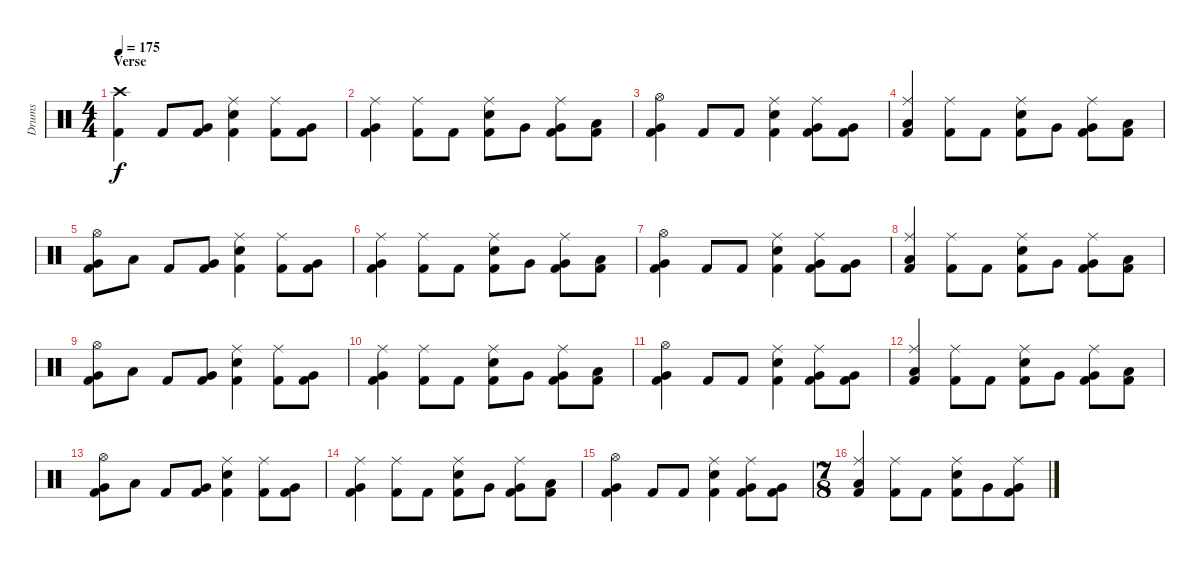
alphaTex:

\track ("Drums" "Drums") {instrument percussion}
\staff {score}
\articulation defaults
\ts (4 4)
\section ("" "Verse")
\tempo 175
\clef neutral
\ks c
("Kick (hit) 2" "Crash high (hit)").4{dy f} "Kick (hit) 2".8 ("Kick (hit) 2" "Very Low Tom (hit)").8 ("Kick (hit) 2" "Electric Snare (hit)" "Ride (middle)").4 ("Kick (hit) 2" "Ride (middle)").8 ("Kick (hit) 2" "Very Low Tom (hit)").8 |
("Kick (hit) 2" "Very Low Tom (hit)" "Ride (middle)").4 ("Kick (hit) 2" "Ride (middle)").8 "Kick (hit) 2".8 ("Kick (hit) 2" "Electric Snare (hit)" "Ride (middle)").8 "Very Low Tom (hit)".8 ("Kick (hit) 2" "Very Low Tom (hit)" "Ride (middle)").8 ("Kick (hit) 2" "Low Floor Tom (hit)").8 |
("Kick (hit) 2" "Very Low Tom (hit)" "Hi-Hat (open)").4 "Kick (hit) 2".8 "Kick (hit) 2".8 ("Kick (hit) 2" "Electric Snare (hit)" "Ride (middle)").4 ("Kick (hit) 2" "Very Low Tom (hit)" "Ride (middle)").8 ("Kick (hit) 2" "Very Low Tom (hit)").8 |
("Kick (hit) 2" "Low Floor Tom (hit)" "Ride (middle)").4 ("Kick (hit) 2" "Ride (middle)").8 "Kick (hit) 2".8 ("Kick (hit) 2" "Electric Snare (hit)" "Ride (middle)").8 "Very Low Tom (hit)".8 ("Kick (hit) 2" "Very Low Tom (hit)" "Ride (middle)").8 ("Kick (hit) 2" "Low Floor Tom (hit)").8 |
("Kick (hit) 2" "Very Low Tom (hit)" "Hi-Hat (open)").8 "Low Floor Tom (hit)".8 "Kick (hit) 2".8 ("Kick (hit) 2" "Very Low Tom (hit)").8 ("Kick (hit) 2" "Electric Snare (hit)" "Ride (middle)").4 ("Kick (hit) 2" "Ride (middle)").8 ("Kick (hit) 2" "Very Low Tom (hit)").8 |
("Kick (hit) 2" "Very Low Tom (hit)" "Ride (middle)").4 ("Kick (hit) 2" "Ride (middle)").8 "Kick (hit) 2".8 ("Kick (hit) 2" "Electric Snare (hit)" "Ride (middle)").8 "Very Low Tom (hit)".8 ("Kick (hit) 2" "Very Low Tom (hit)" "Ride (middle)").8 ("Kick (hit) 2" "Low Floor Tom (hit)").8 |
("Kick (hit) 2" "Very Low Tom (hit)" "Hi-Hat (open)").4 "Kick (hit) 2".8 "Kick (hit) 2".8 ("Kick (hit) 2" "Electric Snare (hit)" "Ride (middle)").4 ("Kick (hit) 2" "Very Low Tom (hit)" "Ride (middle)").8 ("Kick (hit) 2" "Very Low Tom (hit)").8 |
("Kick (hit) 2" "Low Floor Tom (hit)" "Ride (middle)").4 ("Kick (hit) 2" "Ride (middle)").8 "Kick (hit) 2".8 ("Kick (hit) 2" "Electric Snare (hit)" "Ride (middle)").8 "Very Low Tom (hit)".8 ("Kick (hit) 2" "Very Low Tom (hit)" "Ride (middle)").8 ("Kick (hit) 2" "Low Floor Tom (hit)").8 |
("Kick (hit) 2" "Very Low Tom (hit)" "Hi-Hat (open)").8 "Low Floor Tom (hit)".8 "Kick (hit) 2".8 ("Kick (hit) 2" "Very Low Tom (hit)").8 ("Kick (hit) 2" "Electric Snare (hit)" "Ride (middle)").4 ("Kick (hit) 2" "Ride (middle)").8 ("Kick (hit) 2" "Very Low Tom (hit)").8 |
("Kick (hit) 2" "Very Low Tom (hit)" "Ride (middle)").4 ("Kick (hit) 2" "Ride (middle)").8 "Kick (hit) 2".8 ("Kick (hit) 2" "Electric Snare (hit)" "Ride (middle)").8 "Very Low Tom (hit)".8 ("Kick (hit) 2" "Very Low Tom (hit)" "Ride (middle)").8 ("Kick (hit) 2" "Low Floor Tom (hit)").8 |
("Kick (hit) 2" "Very Low Tom (hit)" "Hi-Hat (open)").4 "Kick (hit) 2".8 "Kick (hit) 2".8 ("Kick (hit) 2" "Electric Snare (hit)" "Ride (middle)").4 ("Kick (hit) 2" "Very Low Tom (hit)" "Ride (middle)").8 ("Kick (hit) 2" "Very Low Tom (hit)").8 |
("Kick (hit) 2" "Low Floor Tom (hit)" "Ride (middle)").4 ("Kick (hit) 2" "Ride (middle)").8 "Kick (hit) 2".8 ("Kick (hit) 2" "Electric Snare (hit)" "Ride (middle)").8 "Very Low Tom (hit)".8 ("Kick (hit) 2" "Very Low Tom (hit)" "Ride (middle)").8 ("Kick (hit) 2" "Low Floor Tom (hit)").8 |
("Kick (hit) 2" "Very Low Tom (hit)" "Hi-Hat (open)").8 "Low Floor Tom (hit)".8 "Kick (hit) 2".8 ("Kick (hit) 2" "Very Low Tom (hit)").8 ("Kick (hit) 2" "Electric Snare (hit)" "Ride (middle)").4 ("Kick (hit) 2" "Ride (middle)").8 ("Kick (hit) 2" "Very Low Tom (hit)").8 |
("Kick (hit) 2" "Very Low Tom (hit)" "Ride (middle)").4 ("Kick (hit) 2" "Ride (middle)").8 "Kick (hit) 2".8 ("Kick (hit) 2" "Electric Snare (hit)" "Ride (middle)").8 "Very Low Tom (hit)".8 ("Kick (hit) 2" "Very Low Tom (hit)" "Ride (middle)").8 ("Kick (hit) 2" "Low Floor Tom (hit)").8 |
("Kick (hit) 2" "Very Low Tom (hit)" "Hi-Hat (open)").4 "Kick (hit) 2".8 "Kick (hit) 2".8 ("Kick (hit) 2" "Electric Snare (hit)" "Ride (middle)").4 ("Kick (hit) 2" "Very Low Tom (hit)" "Ride (middle)").8 ("Kick (hit) 2" "Very Low Tom (hit)").8 |
\ts (7 8)
("Kick (hit) 2" "Low Floor Tom (hit)" "Ride (middle)").4 ("Kick (hit) 2" "Ride (middle)").8 "Kick (hit) 2".8 ("Kick (hit) 2" "Electric Snare (hit)" "Ride (middle)").8 "Very Low Tom (hit)".8 ("Kick (hit) 2" "Very Low Tom (hit)" "Ride (middle)").8
